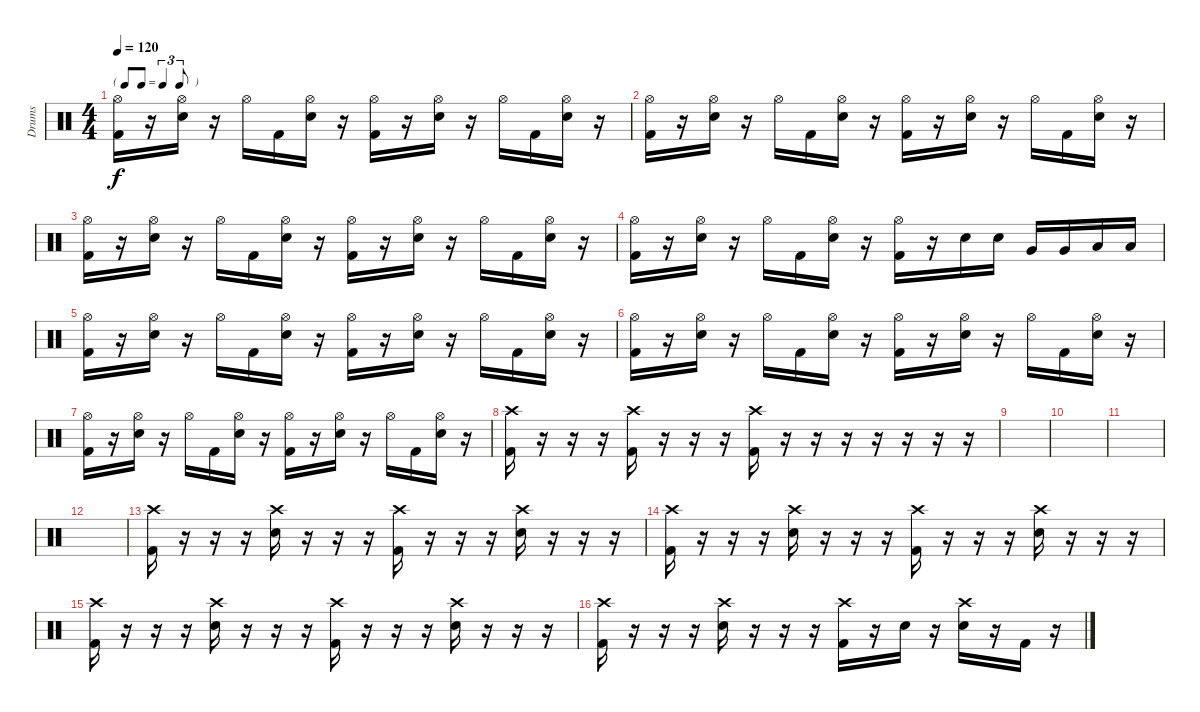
\track ("Drums" "Drums") {instrument percussion}
\staff {score}
\articulation defaults
\ts (4 4)
\tf triplet8th
\tempo 120
\clef neutral
\ks c
("Hi-Hat (open)" "Kick (hit) 2").16{dy f} r.16 ("Hi-Hat (open)" "Electric Snare (hit)").16 r.16 "Hi-Hat (open)".16 "Kick (hit) 2".16 ("Hi-Hat (open)" "Electric Snare (hit)").16 r.16 ("Hi-Hat (open)" "Kick (hit) 2").16 r.16 ("Hi-Hat (open)" "Electric Snare (hit)").16 r.16 "Hi-Hat (open)".16 "Kick (hit) 2".16 ("Hi-Hat (open)" "Electric Snare (hit)").16 r.16 |
("Hi-Hat (open)" "Kick (hit) 2").16 r.16 ("Hi-Hat (open)" "Electric Snare (hit)").16 r.16 "Hi-Hat (open)".16 "Kick (hit) 2".16 ("Hi-Hat (open)" "Electric Snare (hit)").16 r.16 ("Hi-Hat (open)" "Kick (hit) 2").16 r.16 ("Hi-Hat (open)" "Electric Snare (hit)").16 r.16 "Hi-Hat (open)".16 "Kick (hit) 2".16 ("Hi-Hat (open)" "Electric Snare (hit)").16 r.16 |
("Hi-Hat (open)" "Kick (hit) 2").16 r.16 ("Hi-Hat (open)" "Electric Snare (hit)").16 r.16 "Hi-Hat (open)".16 "Kick (hit) 2".16 ("Hi-Hat (open)" "Electric Snare (hit)").16 r.16 ("Hi-Hat (open)" "Kick (hit) 2").16 r.16 ("Hi-Hat (open)" "Electric Snare (hit)").16 r.16 "Hi-Hat (open)".16 "Kick (hit) 2".16 ("Hi-Hat (open)" "Electric Snare (hit)").16 r.16 |
("Hi-Hat (open)" "Kick (hit) 2").16 r.16 ("Hi-Hat (open)" "Electric Snare (hit)").16 r.16 "Hi-Hat (open)".16 "Kick (hit) 2".16 ("Hi-Hat (open)" "Electric Snare (hit)").16 r.16 ("Hi-Hat (open)" "Kick (hit) 2").16 r.16 "Electric Snare (hit)".16 "Electric Snare (hit)".16 "Very Low Tom (hit)".16 "Very Low Tom (hit)".16 "Low Floor Tom (hit)".16 "Low Floor Tom (hit)".16 |
("Hi-Hat (open)" "Kick (hit) 2").16 r.16 ("Hi-Hat (open)" "Electric Snare (hit)").16 r.16 "Hi-Hat (open)".16 "Kick (hit) 2".16 ("Hi-Hat (open)" "Electric Snare (hit)").16 r.16 ("Hi-Hat (open)" "Kick (hit) 2").16 r.16 ("Hi-Hat (open)" "Electric Snare (hit)").16 r.16 "Hi-Hat (open)".16 "Kick (hit) 2".16 ("Hi-Hat (open)" "Electric Snare (hit)").16 r.16 |
("Hi-Hat (open)" "Kick (hit) 2").16 r.16 ("Hi-Hat (open)" "Electric Snare (hit)").16 r.16 "Hi-Hat (open)".16 "Kick (hit) 2".16 ("Hi-Hat (open)" "Electric Snare (hit)").16 r.16 ("Hi-Hat (open)" "Kick (hit) 2").16 r.16 ("Hi-Hat (open)" "Electric Snare (hit)").16 r.16 "Hi-Hat (open)".16 "Kick (hit) 2".16 ("Hi-Hat (open)" "Electric Snare (hit)").16 r.16 |
("Hi-Hat (open)" "Kick (hit) 2").16 r.16 ("Hi-Hat (open)" "Electric Snare (hit)").16 r.16 "Hi-Hat (open)".16 "Kick (hit) 2".16 ("Hi-Hat (open)" "Electric Snare (hit)").16 r.16 ("Hi-Hat (open)" "Kick (hit) 2").16 r.16 ("Hi-Hat (open)" "Electric Snare (hit)").16 r.16 "Hi-Hat (open)".16 "Kick (hit) 2".16 ("Hi-Hat (open)" "Electric Snare (hit)").16 r.16 |
("Crash high (hit)" "Kick (hit) 2").16 r.16 r.16 r.16 ("Crash high (hit)" "Kick (hit) 2").16 r.16 r.16 r.16 ("Crash high (hit)" "Kick (hit) 2").16 r.16 r.16 r.16 r.16 r.16 r.16 r.16 |
|
|
|
|
("Crash high (hit)" "Kick (hit) 2").16 r.16 r.16 r.16 ("Crash high (hit)" "Electric Snare (hit)").16 r.16 r.16 r.16 ("Crash high (hit)" "Kick (hit) 2").16 r.16 r.16 r.16 ("Crash high (hit)" "Electric Snare (hit)").16 r.16 r.16 r.16 |
("Crash high (hit)" "Kick (hit) 2").16 r.16 r.16 r.16 ("Crash high (hit)" "Electric Snare (hit)").16 r.16 r.16 r.16 ("Crash high (hit)" "Kick (hit) 2").16 r.16 r.16 r.16 ("Crash high (hit)" "Electric Snare (hit)").16 r.16 r.16 r.16 |
("Crash high (hit)" "Kick (hit) 2").16 r.16 r.16 r.16 ("Crash high (hit)" "Electric Snare (hit)").16 r.16 r.16 r.16 ("Crash high (hit)" "Kick (hit) 2").16 r.16 r.16 r.16 ("Crash high (hit)" "Electric Snare (hit)").16 r.16 r.16 r.16 |
("Crash high (hit)" "Kick (hit) 2").16 r.16 r.16 r.16 ("Crash high (hit)" "Electric Snare (hit)").16 r.16 r.16 r.16 ("Crash high (hit)" "Kick (hit) 2").16 r.16 "Electric Snare (hit)".16 r.16 ("Crash high (hit)" "Electric Snare (hit)").16 r.16 "Kick (hit) 2".16 r.16
